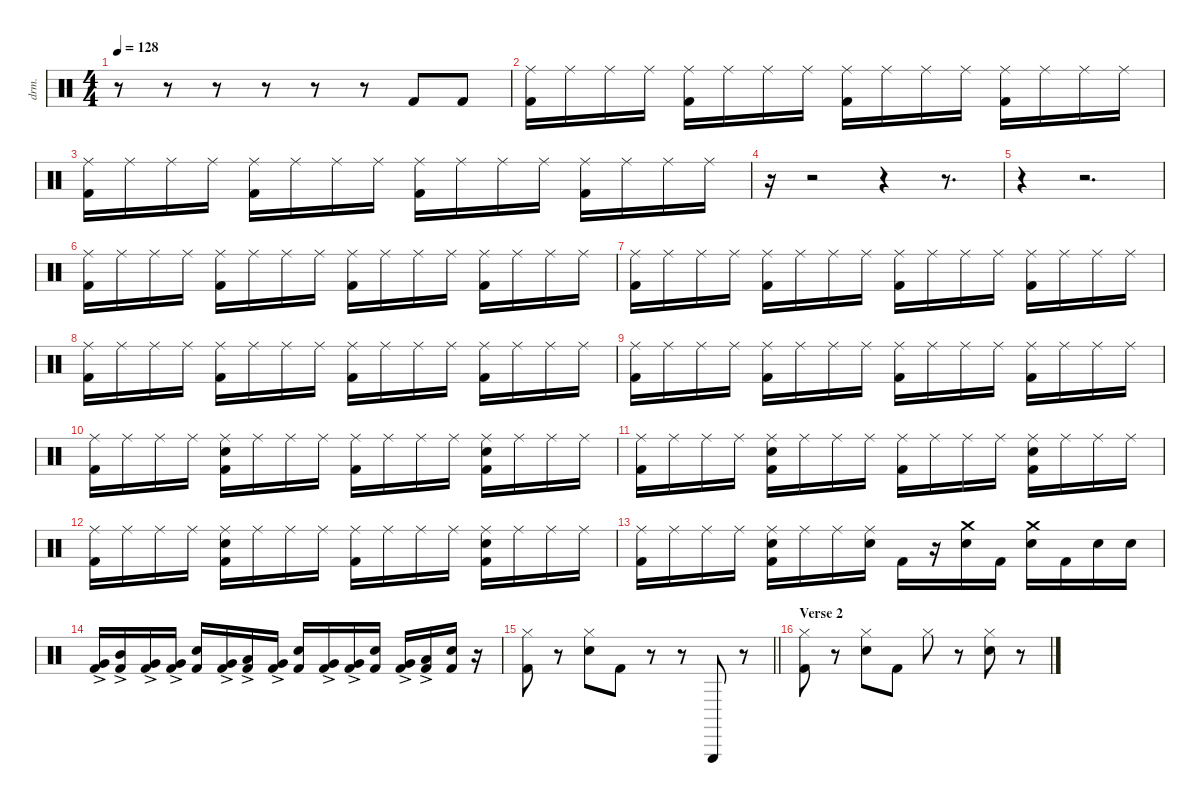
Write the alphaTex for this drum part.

\defaultSystemsLayout 4
\hideDynamics
\bracketExtendMode nobrackets
\otherSystemsTrackNameOrientation horizontal
\track ("Drums" "drm.") {instrument percussion}
\staff {score}
\articulation defaults
\ts (4 4)
\tempo 128
\clef neutral
\ks c
r.8{dy f beam Down} r.8{beam Down} r.8{beam Down} r.8{beam Down} r.8{beam Down} r.8{beam Down} "Kick (hit) 2".8{beam Up} "Kick (hit) 2".8{beam Up} |
("Ride (middle)" "Kick (hit) 2").16{beam Down} "Ride (middle)".16{beam Down} "Ride (middle)".16{beam Down} "Ride (middle)".16{beam Down} ("Ride (middle)" "Kick (hit) 2").16{beam Down} "Ride (middle)".16{beam Down} "Ride (middle)".16{beam Down} "Ride (middle)".16{beam Down} ("Ride (middle)" "Kick (hit) 2").16{beam Down} "Ride (middle)".16{beam Down} "Ride (middle)".16{beam Down} "Ride (middle)".16{beam Down} ("Ride (middle)" "Kick (hit) 2").16{beam Down} "Ride (middle)".16{beam Down} "Ride (middle)".16{beam Down} "Ride (middle)".16{beam Down} |
("Ride (middle)" "Kick (hit) 2").16{beam Down} "Ride (middle)".16{beam Down} "Ride (middle)".16{beam Down} "Ride (middle)".16{beam Down} ("Ride (middle)" "Kick (hit) 2").16{beam Down} "Ride (middle)".16{beam Down} "Ride (middle)".16{beam Down} "Ride (middle)".16{beam Down} ("Ride (middle)" "Kick (hit) 2").16{beam Down} "Ride (middle)".16{beam Down} "Ride (middle)".16{beam Down} "Ride (middle)".16{beam Down} ("Ride (middle)" "Kick (hit) 2").16{beam Down} "Ride (middle)".16{beam Down} "Ride (middle)".16{beam Down} "Ride (middle)".16{beam Down} |
r.16{beam Down} r.2{beam Down} r.4{beam Down} r.8{d beam Down} |
r.4{beam Down} r.2{d beam Down} |
("Ride (middle)" "Kick (hit) 2").16{beam Down} "Ride (middle)".16{beam Down} "Ride (middle)".16{beam Down} "Ride (middle)".16{beam Down} ("Ride (middle)" "Kick (hit) 2").16{beam Down} "Ride (middle)".16{beam Down} "Ride (middle)".16{beam Down} "Ride (middle)".16{beam Down} ("Ride (middle)" "Kick (hit) 2").16{beam Down} "Ride (middle)".16{beam Down} "Ride (middle)".16{beam Down} "Ride (middle)".16{beam Down} ("Ride (middle)" "Kick (hit) 2").16{beam Down} "Ride (middle)".16{beam Down} "Ride (middle)".16{beam Down} "Ride (middle)".16{beam Down} |
("Ride (middle)" "Kick (hit) 2").16{beam Down} "Ride (middle)".16{beam Down} "Ride (middle)".16{beam Down} "Ride (middle)".16{beam Down} ("Ride (middle)" "Kick (hit) 2").16{beam Down} "Ride (middle)".16{beam Down} "Ride (middle)".16{beam Down} "Ride (middle)".16{beam Down} ("Ride (middle)" "Kick (hit) 2").16{beam Down} "Ride (middle)".16{beam Down} "Ride (middle)".16{beam Down} "Ride (middle)".16{beam Down} ("Ride (middle)" "Kick (hit) 2").16{beam Down} "Ride (middle)".16{beam Down} "Ride (middle)".16{beam Down} "Ride (middle)".16{beam Down} |
("Ride (middle)" "Kick (hit) 2").16{beam Down} "Ride (middle)".16{beam Down} "Ride (middle)".16{beam Down} "Ride (middle)".16{beam Down} ("Ride (middle)" "Kick (hit) 2").16{beam Down} "Ride (middle)".16{beam Down} "Ride (middle)".16{beam Down} "Ride (middle)".16{beam Down} ("Ride (middle)" "Kick (hit) 2").16{beam Down} "Ride (middle)".16{beam Down} "Ride (middle)".16{beam Down} "Ride (middle)".16{beam Down} ("Ride (middle)" "Kick (hit) 2").16{beam Down} "Ride (middle)".16{beam Down} "Ride (middle)".16{beam Down} "Ride (middle)".16{beam Down} |
("Ride (middle)" "Kick (hit) 2").16{beam Down} "Ride (middle)".16{beam Down} "Ride (middle)".16{beam Down} "Ride (middle)".16{beam Down} ("Ride (middle)" "Kick (hit) 2").16{beam Down} "Ride (middle)".16{beam Down} "Ride (middle)".16{beam Down} "Ride (middle)".16{beam Down} ("Ride (middle)" "Kick (hit) 2").16{beam Down} "Ride (middle)".16{beam Down} "Ride (middle)".16{beam Down} "Ride (middle)".16{beam Down} ("Ride (middle)" "Kick (hit) 2").16{beam Down} "Ride (middle)".16{beam Down} "Ride (middle)".16{beam Down} "Ride (middle)".16{beam Down} |
("Ride (middle)" "Kick (hit) 2").16{beam Down} "Ride (middle)".16{beam Down} "Ride (middle)".16{beam Down} "Ride (middle)".16{beam Down} ("Ride (middle)" "Snare (hit) 2" "Kick (hit) 2").16{beam Down} "Ride (middle)".16{beam Down} "Ride (middle)".16{beam Down} "Ride (middle)".16{beam Down} ("Ride (middle)" "Kick (hit) 2").16{beam Down} "Ride (middle)".16{beam Down} "Ride (middle)".16{beam Down} "Ride (middle)".16{beam Down} ("Ride (middle)" "Snare (hit) 2" "Kick (hit) 2").16{beam Down} "Ride (middle)".16{beam Down} "Ride (middle)".16{beam Down} "Ride (middle)".16{beam Down} |
("Ride (middle)" "Kick (hit) 2").16{beam Down} "Ride (middle)".16{beam Down} "Ride (middle)".16{beam Down} "Ride (middle)".16{beam Down} ("Ride (middle)" "Snare (hit) 2" "Kick (hit) 2").16{beam Down} "Ride (middle)".16{beam Down} "Ride (middle)".16{beam Down} "Ride (middle)".16{beam Down} ("Ride (middle)" "Kick (hit) 2").16{beam Down} "Ride (middle)".16{beam Down} "Ride (middle)".16{beam Down} "Ride (middle)".16{beam Down} ("Ride (middle)" "Snare (hit) 2" "Kick (hit) 2").16{beam Down} "Ride (middle)".16{beam Down} "Ride (middle)".16{beam Down} "Ride (middle)".16{beam Down} |
("Ride (middle)" "Kick (hit) 2").16{beam Down} "Ride (middle)".16{beam Down} "Ride (middle)".16{beam Down} "Ride (middle)".16{beam Down} ("Ride (middle)" "Snare (hit) 2" "Kick (hit) 2").16{beam Down} "Ride (middle)".16{beam Down} "Ride (middle)".16{beam Down} "Ride (middle)".16{beam Down} ("Ride (middle)" "Kick (hit) 2").16{beam Down} "Ride (middle)".16{beam Down} "Ride (middle)".16{beam Down} "Ride (middle)".16{beam Down} ("Ride (middle)" "Snare (hit) 2" "Kick (hit) 2").16{beam Down} "Ride (middle)".16{beam Down} "Ride (middle)".16{beam Down} "Ride (middle)".16{beam Down} |
("Ride (middle)" "Kick (hit) 2").16{beam Down} "Ride (middle)".16{beam Down} "Ride (middle)".16{beam Down} "Ride (middle)".16{beam Down} ("Ride (middle)" "Snare (hit) 2" "Kick (hit) 2").16{beam Down} "Ride (middle)".16{beam Down} "Ride (middle)".16{beam Down} ("Ride (middle)" "Snare (hit) 2").16{beam Down} "Kick (hit) 2".16{beam Down} r.16{beam Down} ("Crash medium (hit)" "Snare (hit) 2").16{beam Down} "Kick (hit) 2".16{beam Down} ("Crash medium (hit)" "Snare (hit) 2").16{beam Down} "Kick (hit) 2".16{beam Down} "Snare (hit) 2".16{beam Down} "Snare (hit) 2".16{beam Down} |
("Very Low Tom (hit)"{ac} "Kick (hit) 2").16{beam Up} ("Mid Tom (hit)"{ac} "Kick (hit) 2").16{beam Up} ("Very Low Tom (hit)"{ac} "Kick (hit) 2").16{beam Up} ("Very Low Tom (hit)"{ac} "Kick (hit) 2").16{beam Up} ("Snare (hit) 2" "Kick (hit) 2").16{beam Up} ("Very Low Tom (hit)"{ac} "Kick (hit) 2").16{beam Up} ("Low Floor Tom (hit)"{ac} "Kick (hit) 2").16{beam Up} ("Very Low Tom (hit)"{ac} "Kick (hit) 2").16{beam Up} ("Snare (hit) 2" "Kick (hit) 2").16{beam Up} ("Very Low Tom (hit)"{ac} "Kick (hit) 2").16{beam Up} ("Very Low Tom (hit)"{ac} "Kick (hit) 2").16{beam Up} ("Snare (hit) 2" "Kick (hit) 2").16{beam Up} ("Very Low Tom (hit)"{ac} "Kick (hit) 2").16{beam Up} ("Low Floor Tom (hit)"{ac} "Kick (hit) 2").16{beam Up} ("Snare (hit) 2" "Kick (hit) 2").16{beam Up} r.16{beam Up} |
\barLineRight lightlight
("Hi-Hat (closed)" "Kick (hit) 2").8{beam Down} r.8{beam Down} ("Hi-Hat (closed)" "Snare (hit) 2").8{beam Down} "Kick (hit) 2".8{beam Down} r.8{beam Down} r.8{beam Down} "Triangle (hit)".8{beam Up} r.8{beam Up} |
\section ("" "Verse 2")
("Hi-Hat (closed)" "Kick (hit) 2").8{beam Down} r.8{beam Down} ("Hi-Hat (closed)" "Snare (hit) 2").8{beam Down} "Kick (hit) 2".8{beam Down} "Hi-Hat (closed)".8{beam Down} r.8{beam Down} ("Hi-Hat (closed)" "Snare (hit) 2").8{beam Down} r.8{beam Down}
